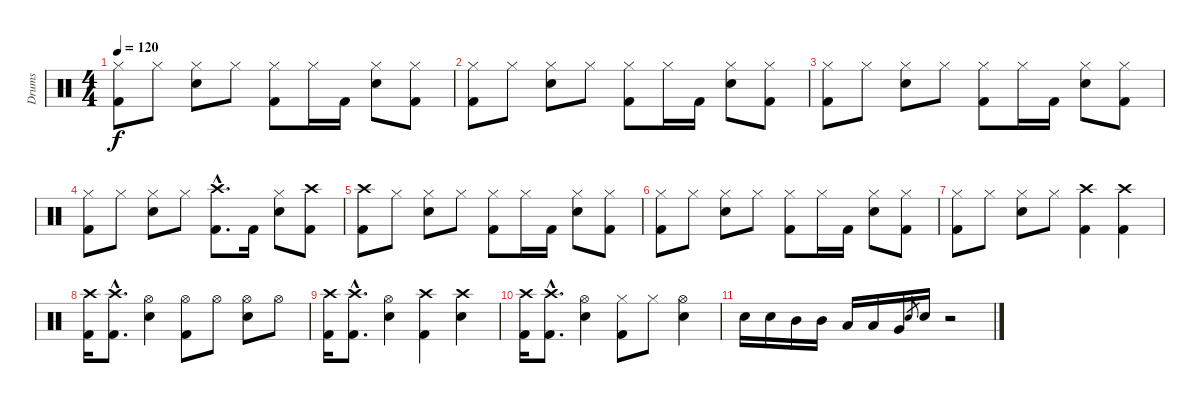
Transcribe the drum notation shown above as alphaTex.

\track ("Drums" "Drums") {instrument percussion}
\staff {score}
\articulation defaults
\ts (4 4)
\tempo 120
\clef neutral
\ks c
("Hi-Hat (closed)" "Kick (hit) 2").8{dy f} "Hi-Hat (closed)".8 ("Hi-Hat (closed)" "Electric Snare (hit)").8 "Hi-Hat (closed)".8 ("Hi-Hat (closed)" "Kick (hit) 2").8 "Hi-Hat (closed)".16 "Kick (hit) 2".16 ("Hi-Hat (closed)" "Electric Snare (hit)").8 ("Hi-Hat (closed)" "Kick (hit) 2").8 |
("Hi-Hat (closed)" "Kick (hit) 2").8 "Hi-Hat (closed)".8 ("Hi-Hat (closed)" "Electric Snare (hit)").8 "Hi-Hat (closed)".8 ("Hi-Hat (closed)" "Kick (hit) 2").8 "Hi-Hat (closed)".16 "Kick (hit) 2".16 ("Hi-Hat (closed)" "Electric Snare (hit)").8 ("Hi-Hat (closed)" "Kick (hit) 2").8 |
("Hi-Hat (closed)" "Kick (hit) 2").8 "Hi-Hat (closed)".8 ("Hi-Hat (closed)" "Electric Snare (hit)").8 "Hi-Hat (closed)".8 ("Hi-Hat (closed)" "Kick (hit) 2").8 "Hi-Hat (closed)".16 "Kick (hit) 2".16 ("Hi-Hat (closed)" "Electric Snare (hit)").8 ("Hi-Hat (closed)" "Kick (hit) 2").8 |
("Hi-Hat (closed)" "Kick (hit) 2").8 "Hi-Hat (closed)".8 ("Hi-Hat (closed)" "Electric Snare (hit)").8 "Hi-Hat (closed)".8 ("Crash high (hit)"{hac} "Kick (hit) 2"{hac}).8{d} "Kick (hit) 2".16 ("Hi-Hat (closed)" "Electric Snare (hit)").8 ("Crash high (hit)" "Kick (hit) 2").8 |
("Crash high (hit)" "Kick (hit) 2").8 "Hi-Hat (closed)".8 ("Hi-Hat (closed)" "Electric Snare (hit)").8 "Hi-Hat (closed)".8 ("Hi-Hat (closed)" "Kick (hit) 2").8 "Hi-Hat (closed)".16 "Kick (hit) 2".16 ("Hi-Hat (closed)" "Electric Snare (hit)").8 ("Hi-Hat (closed)" "Kick (hit) 2").8 |
("Hi-Hat (closed)" "Kick (hit) 2").8 "Hi-Hat (closed)".8 ("Hi-Hat (closed)" "Electric Snare (hit)").8 "Hi-Hat (closed)".8 ("Hi-Hat (closed)" "Kick (hit) 2").8 "Hi-Hat (closed)".16 "Kick (hit) 2".16 ("Hi-Hat (closed)" "Electric Snare (hit)").8 ("Hi-Hat (closed)" "Kick (hit) 2").8 |
("Hi-Hat (closed)" "Kick (hit) 2").8 "Hi-Hat (closed)".8 ("Hi-Hat (closed)" "Electric Snare (hit)").8 "Hi-Hat (closed)".8 ("Crash high (hit)" "Kick (hit) 2").4 ("Crash high (hit)" "Kick (hit) 2").4 |
("Crash high (hit)" "Kick (hit) 2").16 ("Crash high (hit)"{hac} "Kick (hit) 2"{hac}).8{d} ("Hi-Hat (open)" "Electric Snare (hit)").4 ("Hi-Hat (open)" "Kick (hit) 2").8 "Hi-Hat (open)".8 ("Hi-Hat (open)" "Electric Snare (hit)").8 "Hi-Hat (open)".8 |
("Crash high (hit)" "Kick (hit) 2").16 ("Crash high (hit)"{hac} "Kick (hit) 2"{hac}).8{d} ("Hi-Hat (open)" "Electric Snare (hit)").4 ("Crash high (hit)" "Kick (hit) 2").4 ("Crash high (hit)" "Electric Snare (hit)").4 |
("Crash high (hit)" "Kick (hit) 2").16 ("Crash high (hit)"{hac} "Kick (hit) 2"{hac}).8{d} ("Hi-Hat (open)" "Electric Snare (hit)").4 ("Hi-Hat (closed)" "Kick (hit) 2").8 "Hi-Hat (closed)".8 ("Hi-Hat (open)" "Electric Snare (hit)").4 |
"Electric Snare (hit)".16 "Electric Snare (hit)".16 "Mid Tom (hit)".16 "Mid Tom (hit)".16 "Low Tom (hit)".16 "Low Tom (hit)".16 "Very Low Tom (hit)".16 "Electric Snare (hit)".8{gr} "Electric Snare (hit)".16 r.2
